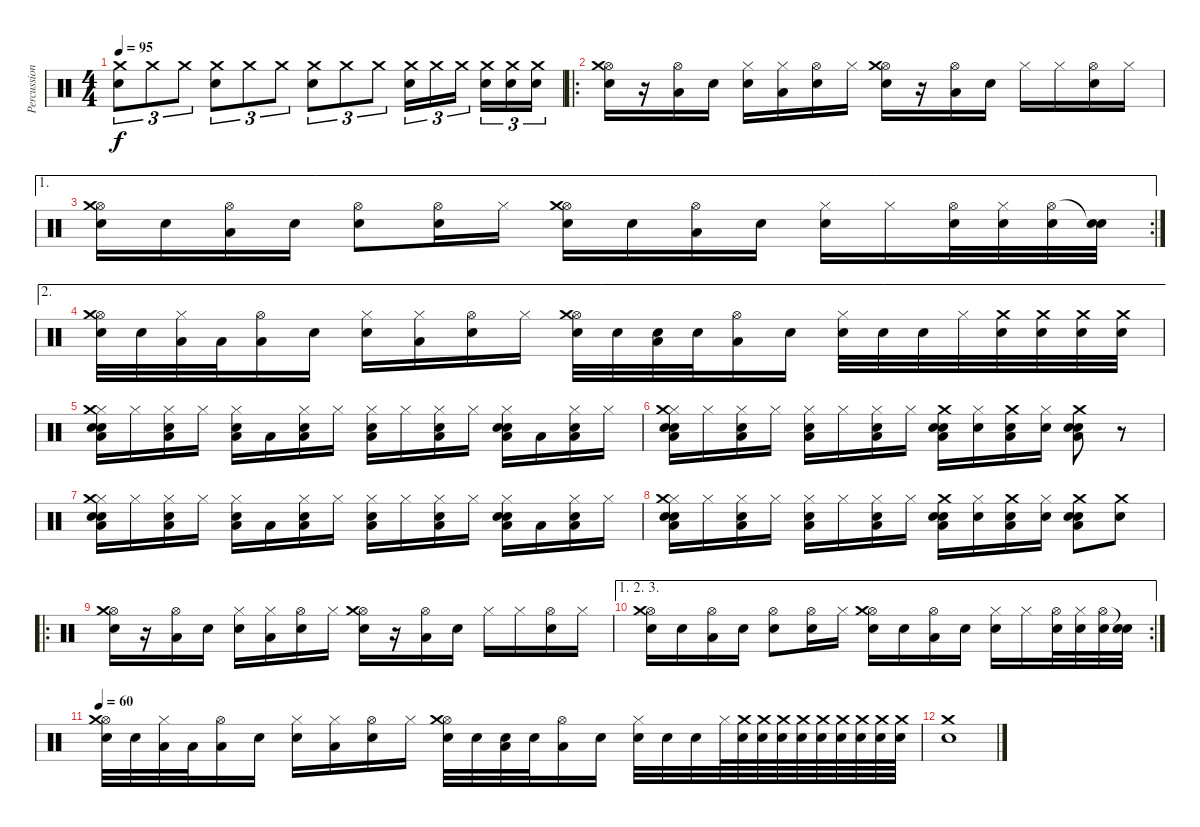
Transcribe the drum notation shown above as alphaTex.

\track ("Percussions" "Percussion") {instrument percussion}
\staff {score}
\articulation defaults
\ts (4 4)
\tempo 95
\clef neutral
\ks c
("Crash medium (hit)" "Electric Snare (hit)").8{tu (3 2) dy f volume 4} "Crash medium (hit)".8{tu (3 2)} "Crash medium (hit)".8{tu (3 2) volume 6} ("Crash medium (hit)" "Electric Snare (hit)").8{tu (3 2)} "Crash medium (hit)".8{tu (3 2) volume 8} "Crash medium (hit)".8{tu (3 2)} ("Crash medium (hit)" "Electric Snare (hit)").8{tu (3 2) volume 10} "Crash medium (hit)".8{tu (3 2)} "Crash medium (hit)".8{tu (3 2) volume 11} ("Crash medium (hit)" "Electric Snare (hit)").16{tu (3 2)} "Crash medium (hit)".16{tu (3 2) volume 12} "Crash medium (hit)".16{tu (3 2)} ("Crash medium (hit)" "Electric Snare (hit)").16{tu (3 2) volume 13} ("Crash medium (hit)" "Electric Snare (hit)").16{tu (3 2) volume 14} ("Crash medium (hit)" "Electric Snare (hit)").16{tu (3 2) volume 16} |
\ro
("Hi-Hat (open)" "Electric Snare (hit)" "Crash medium (hit)").16{volume 13} r.16 ("Hi-Hat (open)" "Low Tom (hit)").16 "Electric Snare (hit)".16 ("Hi-Hat (closed)" "Electric Snare (hit)").16 ("Hi-Hat (closed)" "Low Tom (hit)").16 ("Hi-Hat (open)" "Electric Snare (hit)").16 "Hi-Hat (closed)".16 ("Hi-Hat (open)" "Electric Snare (hit)" "Crash medium (hit)").16 r.16 ("Hi-Hat (open)" "Low Tom (hit)").16 "Electric Snare (hit)".16 "Hi-Hat (closed)".16 "Hi-Hat (closed)".16 ("Hi-Hat (open)" "Electric Snare (hit)").16 "Hi-Hat (closed)".16 |
\ae 1
\rc 2
("Hi-Hat (open)" "Electric Snare (hit)" "Crash medium (hit)").16 "Electric Snare (hit)".16 ("Hi-Hat (open)" "Low Tom (hit)").16 "Electric Snare (hit)".16 ("Hi-Hat (open)" "Electric Snare (hit)").8 ("Hi-Hat (open)" "Electric Snare (hit)").16 "Hi-Hat (closed)".16 ("Hi-Hat (open)" "Electric Snare (hit)" "Crash medium (hit)").16 "Electric Snare (hit)".16 ("Hi-Hat (open)" "Low Tom (hit)").16 "Electric Snare (hit)".16 ("Hi-Hat (closed)" "Electric Snare (hit)").16 "Hi-Hat (closed)".16 ("Hi-Hat (open)" "Electric Snare (hit)").32 ("Hi-Hat (closed)" "Electric Snare (hit)").32 ("Hi-Hat (open)" "Electric Snare (hit)").32 ("Snare (hit)"{t} "Electric Snare (hit)").32 |
\ae 2
("Hi-Hat (open)" "Electric Snare (hit)" "Crash medium (hit)").32 "Electric Snare (hit)".32 ("Hi-Hat (closed)" "Low Tom (hit)").32 "Low Tom (hit)".32 ("Hi-Hat (open)" "Low Tom (hit)").16 "Electric Snare (hit)".16 ("Hi-Hat (closed)" "Electric Snare (hit)").16 ("Hi-Hat (closed)" "Low Tom (hit)").16 ("Hi-Hat (open)" "Electric Snare (hit)").16 "Hi-Hat (closed)".16 ("Hi-Hat (open)" "Electric Snare (hit)" "Crash medium (hit)").32 "Electric Snare (hit)".32 ("Electric Snare (hit)" "Low Tom (hit)").32 "Electric Snare (hit)".32 ("Hi-Hat (open)" "Low Tom (hit)").16 "Electric Snare (hit)".16 ("Hi-Hat (closed)" "Electric Snare (hit)").32 "Electric Snare (hit)".32 "Electric Snare (hit)".32 "Hi-Hat (closed)".32 ("Crash medium (hit)" "Electric Snare (hit)").32 ("Crash medium (hit)" "Electric Snare (hit)").32 ("Crash medium (hit)" "Electric Snare (hit)").32 ("Crash medium (hit)" "Electric Snare (hit)").32 |
("Hi-Hat (closed)" "Electric Snare (hit)" "Crash medium (hit)" "Snare (hit) 2" "Low Tom (hit)").16 "Hi-Hat (closed)".16 ("Hi-Hat (closed)" "Electric Snare (hit)" "Low Tom (hit)").16 "Hi-Hat (closed)".16 ("Hi-Hat (closed)" "Snare (hit) 2" "Low Tom (hit)").16 "Low Tom (hit)".16 ("Hi-Hat (closed)" "Electric Snare (hit)" "Low Tom (hit)").16 "Hi-Hat (closed)".16 ("Hi-Hat (closed)" "Snare (hit) 2" "Low Tom (hit)").16 "Hi-Hat (closed)".16 ("Hi-Hat (closed)" "Electric Snare (hit)" "Low Tom (hit)").16 "Hi-Hat (closed)".16 ("Hi-Hat (closed)" "Electric Snare (hit)" "Snare (hit) 2" "Low Tom (hit)").16 "Low Tom (hit)".16 ("Hi-Hat (closed)" "Electric Snare (hit)" "Low Tom (hit)").16 "Hi-Hat (closed)".16 |
("Hi-Hat (closed)" "Electric Snare (hit)" "Crash medium (hit)" "Snare (hit) 2" "Low Tom (hit)").16 "Hi-Hat (closed)".16 ("Hi-Hat (closed)" "Electric Snare (hit)" "Low Tom (hit)").16 "Hi-Hat (closed)".16 ("Hi-Hat (closed)" "Snare (hit) 2" "Low Tom (hit)").16 "Hi-Hat (closed)".16 ("Hi-Hat (closed)" "Electric Snare (hit)" "Low Tom (hit)").16 "Hi-Hat (closed)".16 ("Crash medium (hit)" "Electric Snare (hit)" "Snare (hit) 2" "Low Tom (hit)").16 ("Hi-Hat (closed)" "Electric Snare (hit)").16 ("Crash medium (hit)" "Electric Snare (hit)" "Low Tom (hit)").16 ("Hi-Hat (closed)" "Electric Snare (hit)").16 ("Crash medium (hit)" "Electric Snare (hit)" "Snare (hit) 2" "Low Tom (hit)").8 r.8 |
("Hi-Hat (closed)" "Electric Snare (hit)" "Crash medium (hit)" "Snare (hit) 2" "Low Tom (hit)").16 "Hi-Hat (closed)".16 ("Hi-Hat (closed)" "Electric Snare (hit)" "Low Tom (hit)").16 "Hi-Hat (closed)".16 ("Hi-Hat (closed)" "Snare (hit) 2" "Low Tom (hit)").16 "Low Tom (hit)".16 ("Hi-Hat (closed)" "Electric Snare (hit)" "Low Tom (hit)").16 "Hi-Hat (closed)".16 ("Hi-Hat (closed)" "Snare (hit) 2" "Low Tom (hit)").16 "Hi-Hat (closed)".16 ("Hi-Hat (closed)" "Electric Snare (hit)" "Low Tom (hit)").16 "Hi-Hat (closed)".16 ("Hi-Hat (closed)" "Electric Snare (hit)" "Snare (hit) 2" "Low Tom (hit)").16 "Low Tom (hit)".16 ("Hi-Hat (closed)" "Electric Snare (hit)" "Low Tom (hit)").16 "Hi-Hat (closed)".16 |
("Hi-Hat (closed)" "Electric Snare (hit)" "Crash medium (hit)" "Snare (hit) 2" "Low Tom (hit)").16 "Hi-Hat (closed)".16 ("Hi-Hat (closed)" "Electric Snare (hit)" "Low Tom (hit)").16 "Hi-Hat (closed)".16 ("Hi-Hat (closed)" "Snare (hit) 2" "Low Tom (hit)").16 "Hi-Hat (closed)".16 ("Hi-Hat (closed)" "Electric Snare (hit)" "Low Tom (hit)").16 "Hi-Hat (closed)".16 ("Crash medium (hit)" "Electric Snare (hit)" "Snare (hit) 2" "Low Tom (hit)").16 ("Hi-Hat (closed)" "Electric Snare (hit)").16 ("Crash medium (hit)" "Electric Snare (hit)" "Low Tom (hit)").16 ("Hi-Hat (closed)" "Electric Snare (hit)").16 ("Crash medium (hit)" "Electric Snare (hit)" "Snare (hit) 2" "Low Tom (hit)").8 ("Crash medium (hit)" "Electric Snare (hit)").8 |
\ro
("Hi-Hat (open)" "Electric Snare (hit)" "Crash medium (hit)").16{volume 13} r.16 ("Hi-Hat (open)" "Low Tom (hit)").16 "Electric Snare (hit)".16 ("Hi-Hat (closed)" "Electric Snare (hit)").16 ("Hi-Hat (closed)" "Low Tom (hit)").16 ("Hi-Hat (open)" "Electric Snare (hit)").16 "Hi-Hat (closed)".16 ("Hi-Hat (open)" "Electric Snare (hit)" "Crash medium (hit)").16 r.16 ("Hi-Hat (open)" "Low Tom (hit)").16 "Electric Snare (hit)".16 "Hi-Hat (closed)".16 "Hi-Hat (closed)".16 ("Hi-Hat (open)" "Electric Snare (hit)").16 "Hi-Hat (closed)".16 |
\ae (1 2 3)
\rc 2
("Hi-Hat (open)" "Electric Snare (hit)" "Crash medium (hit)").16 "Electric Snare (hit)".16 ("Hi-Hat (open)" "Low Tom (hit)").16 "Electric Snare (hit)".16 ("Hi-Hat (open)" "Electric Snare (hit)").8 ("Hi-Hat (open)" "Electric Snare (hit)").16 "Hi-Hat (closed)".16 ("Hi-Hat (open)" "Electric Snare (hit)" "Crash medium (hit)").16 "Electric Snare (hit)".16 ("Hi-Hat (open)" "Low Tom (hit)").16 "Electric Snare (hit)".16 ("Hi-Hat (closed)" "Electric Snare (hit)").16 "Hi-Hat (closed)".16 ("Hi-Hat (open)" "Electric Snare (hit)").32 ("Hi-Hat (closed)" "Electric Snare (hit)").32 ("Hi-Hat (open)" "Electric Snare (hit)").32 ("Snare (hit)"{t} "Electric Snare (hit)").32 |
\tempo 60
("Hi-Hat (open)" "Electric Snare (hit)" "Crash medium (hit)").32 "Electric Snare (hit)".32 ("Hi-Hat (closed)" "Low Tom (hit)").32 "Low Tom (hit)".32 ("Hi-Hat (open)" "Low Tom (hit)").16 "Electric Snare (hit)".16 ("Hi-Hat (closed)" "Electric Snare (hit)").16 ("Hi-Hat (closed)" "Low Tom (hit)").16 ("Hi-Hat (open)" "Electric Snare (hit)").16 "Hi-Hat (closed)".16 ("Hi-Hat (open)" "Electric Snare (hit)" "Crash medium (hit)").32 "Electric Snare (hit)".32 ("Electric Snare (hit)" "Low Tom (hit)").32 "Electric Snare (hit)".32 ("Hi-Hat (open)" "Low Tom (hit)").16 "Electric Snare (hit)".16 ("Hi-Hat (closed)" "Electric Snare (hit)").32 "Electric Snare (hit)".32 "Electric Snare (hit)".32 "Hi-Hat (closed)".64 ("Crash medium (hit)" "Electric Snare (hit)").64 ("Crash medium (hit)" "Electric Snare (hit)").64 ("Crash medium (hit)" "Electric Snare (hit)").64 ("Crash medium (hit)" "Electric Snare (hit)").64 ("Crash medium (hit)" "Electric Snare (hit)").64 ("Crash medium (hit)" "Electric Snare (hit)").64 ("Crash medium (hit)" "Electric Snare (hit)").64 ("Crash medium (hit)" "Electric Snare (hit)").64 ("Crash medium (hit)" "Electric Snare (hit)").64 |
("Crash medium (hit)" "Electric Snare (hit)").1
